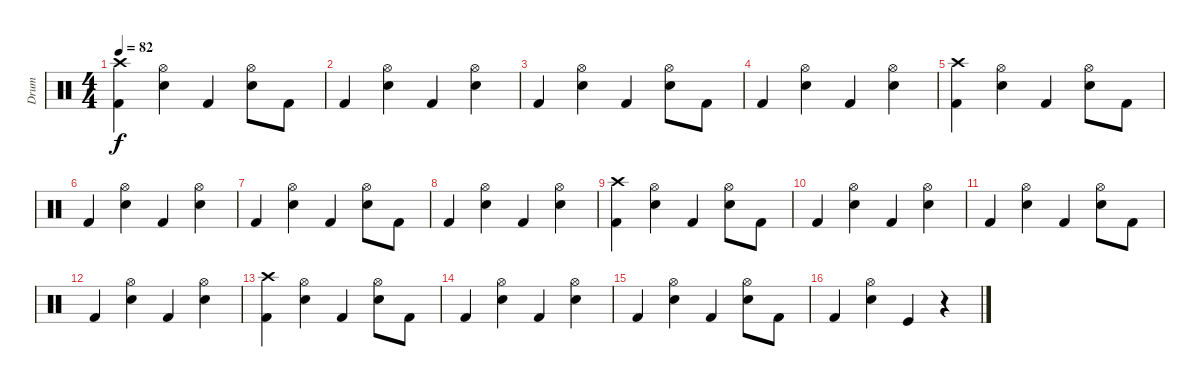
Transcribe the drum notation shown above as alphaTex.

\track ("Drum" "Drum") {instrument percussion}
\staff {score}
\articulation defaults
\ts (4 4)
\tempo 82
\clef neutral
\ks c
("Crash high (hit)" "Kick (hit) 2").4{dy f} ("Hi-Hat (open)" "Snare (hit) 2").4 "Kick (hit) 2".4 ("Hi-Hat (open)" "Snare (hit) 2").8 "Kick (hit) 2".8 |
"Kick (hit) 2".4 ("Hi-Hat (open)" "Snare (hit) 2").4 "Kick (hit) 2".4 ("Hi-Hat (open)" "Snare (hit) 2").4 |
"Kick (hit) 2".4 ("Hi-Hat (open)" "Snare (hit) 2").4 "Kick (hit) 2".4 ("Hi-Hat (open)" "Snare (hit) 2").8 "Kick (hit) 2".8 |
"Kick (hit) 2".4 ("Hi-Hat (open)" "Snare (hit) 2").4 "Kick (hit) 2".4 ("Hi-Hat (open)" "Snare (hit) 2").4 |
("Crash high (hit)" "Kick (hit) 2").4 ("Hi-Hat (open)" "Snare (hit) 2").4 "Kick (hit) 2".4 ("Hi-Hat (open)" "Snare (hit) 2").8 "Kick (hit) 2".8 |
"Kick (hit) 2".4 ("Hi-Hat (open)" "Snare (hit) 2").4 "Kick (hit) 2".4 ("Hi-Hat (open)" "Snare (hit) 2").4 |
"Kick (hit) 2".4 ("Hi-Hat (open)" "Snare (hit) 2").4 "Kick (hit) 2".4 ("Hi-Hat (open)" "Snare (hit) 2").8 "Kick (hit) 2".8 |
"Kick (hit) 2".4 ("Hi-Hat (open)" "Snare (hit) 2").4 "Kick (hit) 2".4 ("Hi-Hat (open)" "Snare (hit) 2").4 |
("Crash high (hit)" "Kick (hit) 2").4 ("Hi-Hat (open)" "Snare (hit) 2").4 "Kick (hit) 2".4 ("Hi-Hat (open)" "Snare (hit) 2").8 "Kick (hit) 2".8 |
"Kick (hit) 2".4 ("Hi-Hat (open)" "Snare (hit) 2").4 "Kick (hit) 2".4 ("Hi-Hat (open)" "Snare (hit) 2").4 |
"Kick (hit) 2".4 ("Hi-Hat (open)" "Snare (hit) 2").4 "Kick (hit) 2".4 ("Hi-Hat (open)" "Snare (hit) 2").8 "Kick (hit) 2".8 |
"Kick (hit) 2".4 ("Hi-Hat (open)" "Snare (hit) 2").4 "Kick (hit) 2".4 ("Hi-Hat (open)" "Snare (hit) 2").4 |
("Crash high (hit)" "Kick (hit) 2").4 ("Hi-Hat (open)" "Snare (hit) 2").4 "Kick (hit) 2".4 ("Hi-Hat (open)" "Snare (hit) 2").8 "Kick (hit) 2".8 |
"Kick (hit) 2".4 ("Hi-Hat (open)" "Snare (hit) 2").4 "Kick (hit) 2".4 ("Hi-Hat (open)" "Snare (hit) 2").4 |
"Kick (hit) 2".4 ("Hi-Hat (open)" "Snare (hit) 2").4 "Kick (hit) 2".4 ("Hi-Hat (open)" "Snare (hit) 2").8 "Kick (hit) 2".8 |
"Kick (hit) 2".4 ("Hi-Hat (open)" "Snare (hit) 2").4 "Kick (hit)".4 r.4
